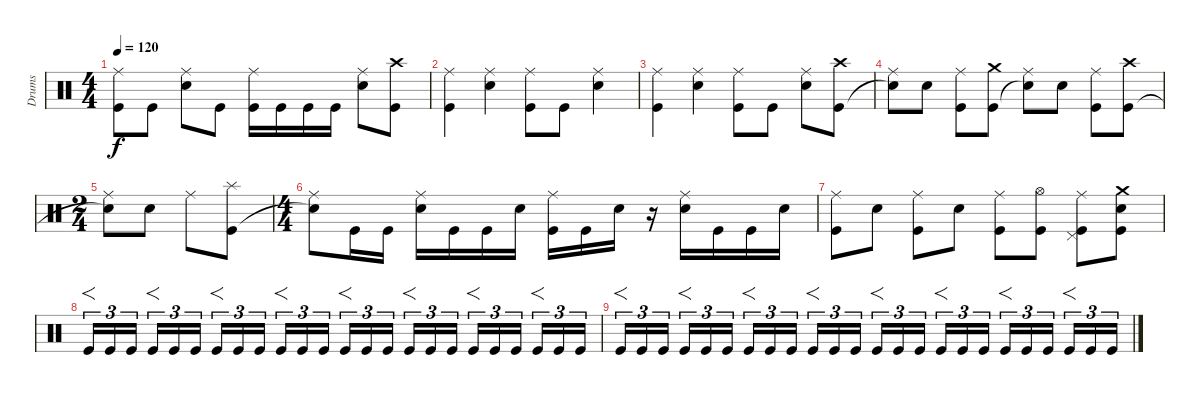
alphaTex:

\track ("Drums" "Drums") {instrument percussion}
\staff {score}
\articulation defaults
\ts (4 4)
\tempo 120
\clef neutral
\ks c
("Ride (middle)" "Kick (hit)").8{dy f} "Kick (hit)".8 ("Ride (middle)" "Electric Snare (hit)").8 "Kick (hit)".8 ("Ride (middle)" "Kick (hit)").16 "Kick (hit)".16 "Kick (hit)".16 "Kick (hit)".16 ("Ride (middle)" "Electric Snare (hit)").8 ("Crash high (hit)" "Kick (hit)").8 |
("Ride (middle)" "Kick (hit)").4 ("Ride (middle)" "Electric Snare (hit)").4 ("Ride (middle)" "Kick (hit)").8 "Kick (hit)".8 ("Ride (middle)" "Electric Snare (hit)").4 |
("Ride (middle)" "Kick (hit)").4 ("Ride (middle)" "Electric Snare (hit)").4 ("Ride (middle)" "Kick (hit)").8 "Kick (hit)".8 ("Ride (middle)" "Electric Snare (hit)").8 ("Crash high (hit)" "Kick (hit)").8 |
("Ride (middle)" "Snare (hit)"{t}).8 "Electric Snare (hit)".8 ("Ride (middle)" "Kick (hit)").8 ("Crash medium (hit)" "Kick (hit)").8 ("Ride (middle)" "Snare (hit)"{t}).8 "Electric Snare (hit)".8 ("Ride (middle)" "Kick (hit)").8 ("Crash high (hit)" "Kick (hit)").8 |
\ts (2 4)
("Ride (middle)" "Snare (hit)"{t}).8 "Electric Snare (hit)".8 "Ride (middle)".8 ("Splash (hit)" "Kick (hit)").8 |
\ts (4 4)
("Ride (middle)" "Snare (hit)"{t}).8 "Kick (hit)".16 "Kick (hit)".16 ("Ride (middle)" "Electric Snare (hit)").16 "Kick (hit)".16 "Kick (hit)".16 "Electric Snare (hit)".16 ("Ride (middle)" "Kick (hit)").16 "Kick (hit)".16 "Electric Snare (hit)".16 r.16 ("Ride (middle)" "Electric Snare (hit)").16 "Kick (hit)".16 "Kick (hit)".16 "Electric Snare (hit)".16 |
("Ride (middle)" "Kick (hit)").8 "Electric Snare (hit)".8 ("Ride (middle)" "Kick (hit)").8 "Electric Snare (hit)".8 ("Ride (middle)" "Kick (hit)").8 ("Hi-Hat (open)" "Kick (hit)").8 ("Ride (middle)" "Pedal Hi-Hat (hit)" "Kick (hit)").8 ("Crash medium (hit)" "Electric Snare (hit)" "Kick (hit)").8 |
"Kick (hit)".16{f tu (3 2)} "Kick (hit)".16{tu (3 2)} "Kick (hit)".16{tu (3 2) beam splitsecondary} "Kick (hit)".16{f tu (3 2)} "Kick (hit)".16{tu (3 2)} "Kick (hit)".16{tu (3 2)} "Kick (hit)".16{f tu (3 2)} "Kick (hit)".16{tu (3 2)} "Kick (hit)".16{tu (3 2) beam splitsecondary} "Kick (hit)".16{f tu (3 2)} "Kick (hit)".16{tu (3 2)} "Kick (hit)".16{tu (3 2)} "Kick (hit)".16{f tu (3 2)} "Kick (hit)".16{tu (3 2)} "Kick (hit)".16{tu (3 2) beam splitsecondary} "Kick (hit)".16{f tu (3 2)} "Kick (hit)".16{tu (3 2)} "Kick (hit)".16{tu (3 2)} "Kick (hit)".16{f tu (3 2)} "Kick (hit)".16{tu (3 2)} "Kick (hit)".16{tu (3 2) beam splitsecondary} "Kick (hit)".16{f tu (3 2)} "Kick (hit)".16{tu (3 2)} "Kick (hit)".16{tu (3 2)} |
"Kick (hit)".16{f tu (3 2)} "Kick (hit)".16{tu (3 2)} "Kick (hit)".16{tu (3 2) beam splitsecondary} "Kick (hit)".16{f tu (3 2)} "Kick (hit)".16{tu (3 2)} "Kick (hit)".16{tu (3 2)} "Kick (hit)".16{f tu (3 2)} "Kick (hit)".16{tu (3 2)} "Kick (hit)".16{tu (3 2) beam splitsecondary} "Kick (hit)".16{f tu (3 2)} "Kick (hit)".16{tu (3 2)} "Kick (hit)".16{tu (3 2)} "Kick (hit)".16{f tu (3 2)} "Kick (hit)".16{tu (3 2)} "Kick (hit)".16{tu (3 2) beam splitsecondary} "Kick (hit)".16{f tu (3 2)} "Kick (hit)".16{tu (3 2)} "Kick (hit)".16{tu (3 2)} "Kick (hit)".16{f tu (3 2)} "Kick (hit)".16{tu (3 2)} "Kick (hit)".16{tu (3 2) beam splitsecondary} "Kick (hit)".16{f tu (3 2)} "Kick (hit)".16{tu (3 2)} "Kick (hit)".16{tu (3 2)}
